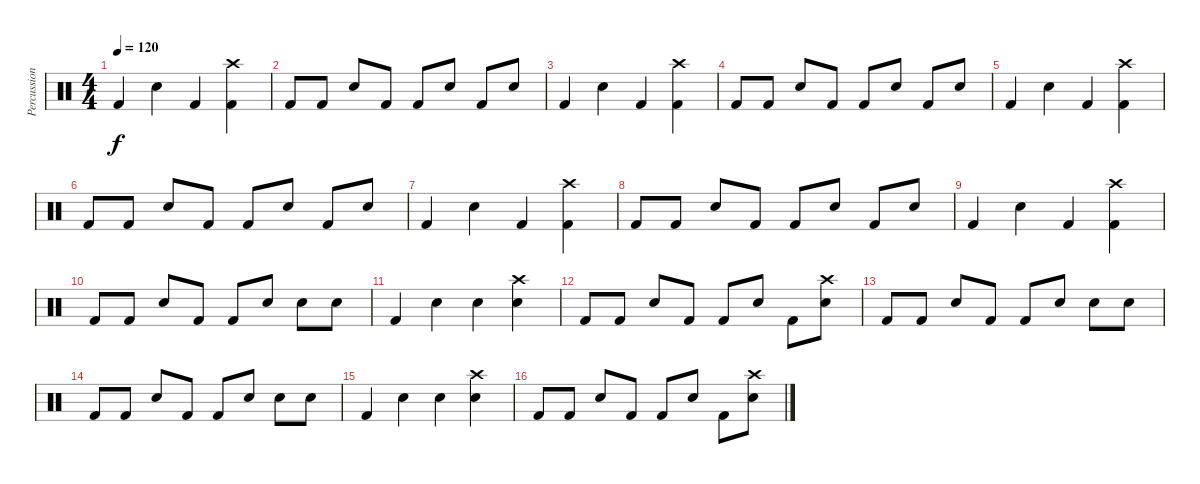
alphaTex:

\track ("Percussion" "Percussion") {instrument percussion}
\staff {score}
\articulation defaults
\ts (4 4)
\tempo 120
\clef neutral
\ks c "Kick (hit) 2".4{dy f} "Snare (hit) 2".4 "Kick (hit) 2".4
("Kick (hit) 2" "Crash high (hit)").4 |
"Kick (hit) 2".8 "Kick (hit) 2".8 "Snare (hit) 2".8 "Kick (hit) 2".8 "Kick (hit) 2".8 "Snare (hit) 2".8 "Kick (hit) 2".8 "Snare (hit) 2".8 |
"Kick (hit) 2".4 "Snare (hit) 2".4 "Kick (hit) 2".4 ("Kick (hit) 2" "Crash high (hit)").4 |
"Kick (hit) 2".8 "Kick (hit) 2".8 "Snare (hit) 2".8 "Kick (hit) 2".8 "Kick (hit) 2".8 "Snare (hit) 2".8 "Kick (hit) 2".8 "Snare (hit) 2".8 |
"Kick (hit) 2".4 "Snare (hit) 2".4 "Kick (hit) 2".4 ("Kick (hit) 2" "Crash high (hit)").4 |
"Kick (hit) 2".8 "Kick (hit) 2".8 "Snare (hit) 2".8 "Kick (hit) 2".8 "Kick (hit) 2".8 "Snare (hit) 2".8 "Kick (hit) 2".8 "Snare (hit) 2".8 |
"Kick (hit) 2".4 "Snare (hit) 2".4 "Kick (hit) 2".4 ("Kick (hit) 2" "Crash high (hit)").4 |
"Kick (hit) 2".8 "Kick (hit) 2".8 "Snare (hit) 2".8 "Kick (hit) 2".8 "Kick (hit) 2".8 "Snare (hit) 2".8 "Kick (hit) 2".8 "Snare (hit) 2".8 |
"Kick (hit) 2".4 "Snare (hit) 2".4 "Kick (hit) 2".4 ("Kick (hit) 2" "Crash high (hit)").4 |
"Kick (hit) 2".8 "Kick (hit) 2".8 "Snare (hit) 2".8 "Kick (hit) 2".8 "Kick (hit) 2".8 "Snare (hit) 2".8 "Snare (hit) 2".8 "Snare (hit) 2".8 |
"Kick (hit) 2".4 "Snare (hit) 2".4 "Snare (hit) 2".4 ("Snare (hit) 2" "Crash high (hit)").4 |
"Kick (hit) 2".8 "Kick (hit) 2".8 "Snare (hit) 2".8 "Kick (hit) 2".8 "Kick (hit) 2".8 "Snare (hit) 2".8 "Kick (hit) 2".8 ("Snare (hit) 2" "Crash high (hit)").8 |
"Kick (hit) 2".8 "Kick (hit) 2".8 "Snare (hit) 2".8 "Kick (hit) 2".8 "Kick (hit) 2".8 "Snare (hit) 2".8 "Snare (hit) 2".8 "Snare (hit) 2".8 |
"Kick (hit) 2".8 "Kick (hit) 2".8 "Snare (hit) 2".8 "Kick (hit) 2".8 "Kick (hit) 2".8 "Snare (hit) 2".8 "Snare (hit) 2".8 "Snare (hit) 2".8 |
"Kick (hit) 2".4 "Snare (hit) 2".4 "Snare (hit) 2".4 ("Snare (hit) 2" "Crash high (hit)").4 |
"Kick (hit) 2".8 "Kick (hit) 2".8 "Snare (hit) 2".8 "Kick (hit) 2".8 "Kick (hit) 2".8 "Snare (hit) 2".8 "Kick (hit) 2".8 ("Snare (hit) 2" "Crash high (hit)").8
